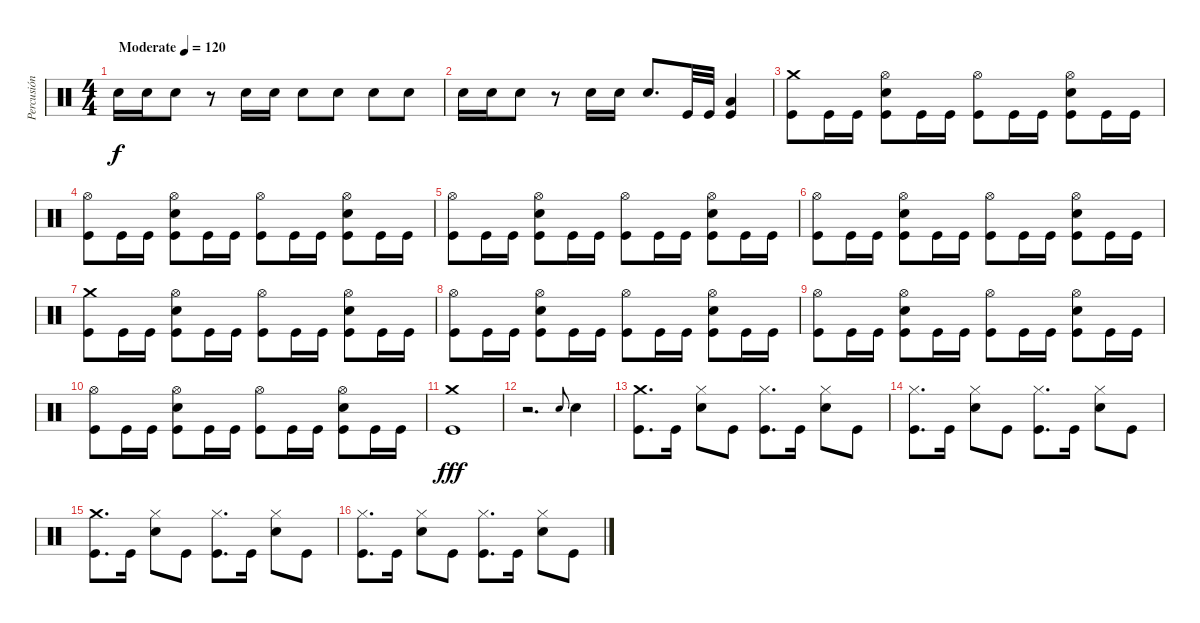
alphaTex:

\track ("Percusión" "Percusión") {instrument percussion}
\staff {score}
\articulation defaults
\ts (4 4)
\tempo (120 "Moderate")
\clef neutral
\ks c "Snare (hit) 2".16{dy f} "Snare (hit) 2".16 "Snare (hit) 2".8
r.8 "Snare (hit) 2".16 "Snare (hit) 2".16 "Snare (hit) 2".8 "Snare (hit) 2".8 "Snare (hit) 2".8 "Snare (hit) 2".8 |
"Snare (hit) 2".16 "Snare (hit) 2".16 "Snare (hit) 2".8 r.8 "Snare (hit) 2".16 "Snare (hit) 2".16 "Snare (hit) 2".8{d} "Kick (hit)".32 "Kick (hit)".32 ("Kick (hit)" "Low Tom (hit)").4 |
("Crash medium (hit)" "Kick (hit)").8 "Kick (hit)".16 "Kick (hit)".16 ("Hi-Hat (open)" "Snare (hit) 2" "Kick (hit)").8 "Kick (hit)".16 "Kick (hit)".16 ("Hi-Hat (open)" "Kick (hit)").8 "Kick (hit)".16 "Kick (hit)".16 ("Hi-Hat (open)" "Snare (hit) 2" "Kick (hit)").8 "Kick (hit)".16 "Kick (hit)".16 |
("Hi-Hat (open)" "Kick (hit)").8 "Kick (hit)".16 "Kick (hit)".16 ("Hi-Hat (open)" "Snare (hit) 2" "Kick (hit)").8 "Kick (hit)".16 "Kick (hit)".16 ("Hi-Hat (open)" "Kick (hit)").8 "Kick (hit)".16 "Kick (hit)".16 ("Hi-Hat (open)" "Snare (hit) 2" "Kick (hit)").8 "Kick (hit)".16 "Kick (hit)".16 |
("Hi-Hat (open)" "Kick (hit)").8 "Kick (hit)".16 "Kick (hit)".16 ("Hi-Hat (open)" "Snare (hit) 2" "Kick (hit)").8 "Kick (hit)".16 "Kick (hit)".16 ("Hi-Hat (open)" "Kick (hit)").8 "Kick (hit)".16 "Kick (hit)".16 ("Hi-Hat (open)" "Snare (hit) 2" "Kick (hit)").8 "Kick (hit)".16 "Kick (hit)".16 |
("Hi-Hat (open)" "Kick (hit)").8 "Kick (hit)".16 "Kick (hit)".16 ("Hi-Hat (open)" "Snare (hit) 2" "Kick (hit)").8 "Kick (hit)".16 "Kick (hit)".16 ("Hi-Hat (open)" "Kick (hit)").8 "Kick (hit)".16 "Kick (hit)".16 ("Hi-Hat (open)" "Snare (hit) 2" "Kick (hit)").8 "Kick (hit)".16 "Kick (hit)".16 |
("Crash medium (hit)" "Kick (hit)").8 "Kick (hit)".16 "Kick (hit)".16 ("Hi-Hat (open)" "Snare (hit) 2" "Kick (hit)").8 "Kick (hit)".16 "Kick (hit)".16 ("Hi-Hat (open)" "Kick (hit)").8 "Kick (hit)".16 "Kick (hit)".16 ("Hi-Hat (open)" "Snare (hit) 2" "Kick (hit)").8 "Kick (hit)".16 "Kick (hit)".16 |
("Hi-Hat (open)" "Kick (hit)").8 "Kick (hit)".16 "Kick (hit)".16 ("Hi-Hat (open)" "Snare (hit) 2" "Kick (hit)").8 "Kick (hit)".16 "Kick (hit)".16 ("Hi-Hat (open)" "Kick (hit)").8 "Kick (hit)".16 "Kick (hit)".16 ("Hi-Hat (open)" "Snare (hit) 2" "Kick (hit)").8 "Kick (hit)".16 "Kick (hit)".16 |
("Hi-Hat (open)" "Kick (hit)").8 "Kick (hit)".16 "Kick (hit)".16 ("Hi-Hat (open)" "Snare (hit) 2" "Kick (hit)").8 "Kick (hit)".16 "Kick (hit)".16 ("Hi-Hat (open)" "Kick (hit)").8 "Kick (hit)".16 "Kick (hit)".16 ("Hi-Hat (open)" "Snare (hit) 2" "Kick (hit)").8 "Kick (hit)".16 "Kick (hit)".16 |
("Hi-Hat (open)" "Kick (hit)").8 "Kick (hit)".16 "Kick (hit)".16 ("Hi-Hat (open)" "Snare (hit) 2" "Kick (hit)").8 "Kick (hit)".16 "Kick (hit)".16 ("Hi-Hat (open)" "Kick (hit)").8 "Kick (hit)".16 "Kick (hit)".16 ("Hi-Hat (open)" "Snare (hit) 2" "Kick (hit)").8 "Kick (hit)".16 "Kick (hit)".16 |
("Crash medium (hit)" "Kick (hit)").1{dy fff} |
r.2{d} "Snare (hit) 2".8{gr onbeat} "Snare (hit) 2".4 |
("Crash medium (hit)" "Kick (hit)").8{d} "Kick (hit)".16 ("Hi-Hat (closed)" "Snare (hit) 2").8 "Kick (hit)".8 ("Hi-Hat (closed)" "Kick (hit)").8{d} "Kick (hit)".16 ("Hi-Hat (closed)" "Snare (hit) 2").8 "Kick (hit)".8 |
("Hi-Hat (closed)" "Kick (hit)").8{d} "Kick (hit)".16 ("Hi-Hat (closed)" "Snare (hit) 2").8 "Kick (hit)".8 ("Hi-Hat (closed)" "Kick (hit)").8{d} "Kick (hit)".16 ("Hi-Hat (closed)" "Snare (hit) 2").8 "Kick (hit)".8 |
("Crash medium (hit)" "Kick (hit)").8{d} "Kick (hit)".16 ("Hi-Hat (closed)" "Snare (hit) 2").8 "Kick (hit)".8 ("Hi-Hat (closed)" "Kick (hit)").8{d} "Kick (hit)".16 ("Hi-Hat (closed)" "Snare (hit) 2").8 "Kick (hit)".8 |
("Hi-Hat (closed)" "Kick (hit)").8{d} "Kick (hit)".16 ("Hi-Hat (closed)" "Snare (hit) 2").8 "Kick (hit)".8 ("Hi-Hat (closed)" "Kick (hit)").8{d} "Kick (hit)".16 ("Hi-Hat (closed)" "Snare (hit) 2").8 "Kick (hit)".8
